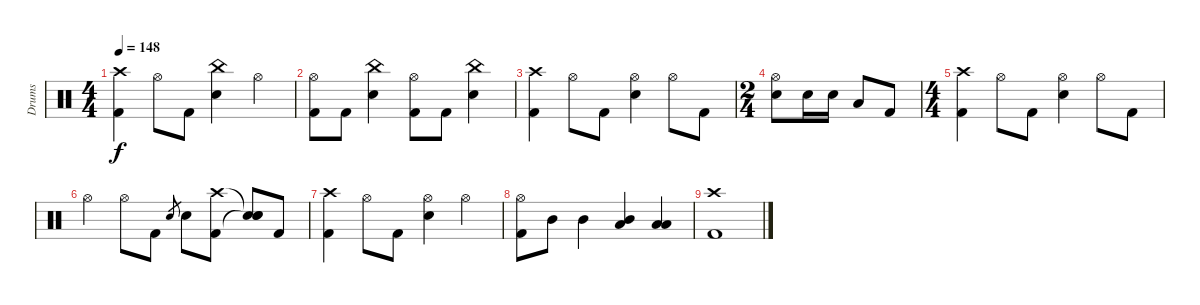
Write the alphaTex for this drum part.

\track ("Drums" "Drums") {instrument percussion}
\staff {score}
\articulation defaults
\ts (4 4)
\tempo 148
\clef neutral
\ks c
("Crash high (hit)" "Kick (hit) 2").4{dy f} "Hi-Hat (open)".8 "Kick (hit) 2".8 ("China (hit)" "Electric Snare (hit)").4 "Hi-Hat (open)".4 |
("Hi-Hat (open)" "Kick (hit) 2").8 "Kick (hit) 2".8 ("China (hit)" "Electric Snare (hit)").4 ("Hi-Hat (open)" "Kick (hit) 2").8 "Kick (hit) 2".8 ("China (hit)" "Electric Snare (hit)").4 |
("Crash high (hit)" "Kick (hit) 2").4 "Hi-Hat (open)".8 "Kick (hit) 2".8 ("Hi-Hat (open)" "Electric Snare (hit)").4 "Hi-Hat (open)".8 "Kick (hit) 2".8 |
\ts (2 4)
("Hi-Hat (open)" "Electric Snare (hit)").8 "Electric Snare (hit)".16 "Electric Snare (hit)".16 "Low Tom (hit)".8 "Kick (hit) 2".8 |
\ts (4 4)
("Crash high (hit)" "Kick (hit) 2").4 "Hi-Hat (open)".8 "Kick (hit) 2".8 ("Hi-Hat (open)" "Electric Snare (hit)").4 "Hi-Hat (open)".8 "Kick (hit) 2".8 |
"Hi-Hat (open)".4 "Hi-Hat (open)".8 "Kick (hit) 2".8 "Electric Snare (hit)".8{gr} "Electric Snare (hit)".8 ("Crash high (hit)" "Kick (hit) 2").8 ("Snare (hit)"{t} "Snare (hit)"{t} "Snare (hit)").8 "Kick (hit) 2".8 |
("Crash high (hit)" "Kick (hit) 2").4 "Hi-Hat (open)".8 "Kick (hit) 2".8 ("Hi-Hat (open)" "Electric Snare (hit)").4 "Hi-Hat (open)".4 |
("Hi-Hat (open)" "Kick (hit) 2").8 "Mid Tom (hit)".8 "Mid Tom (hit)".4 ("Mid Tom (hit)" "Low Tom (hit)").4 ("Low Tom (hit)" "Low Floor Tom (hit)").4 |
("Crash high (hit)" "Kick (hit) 2").1
